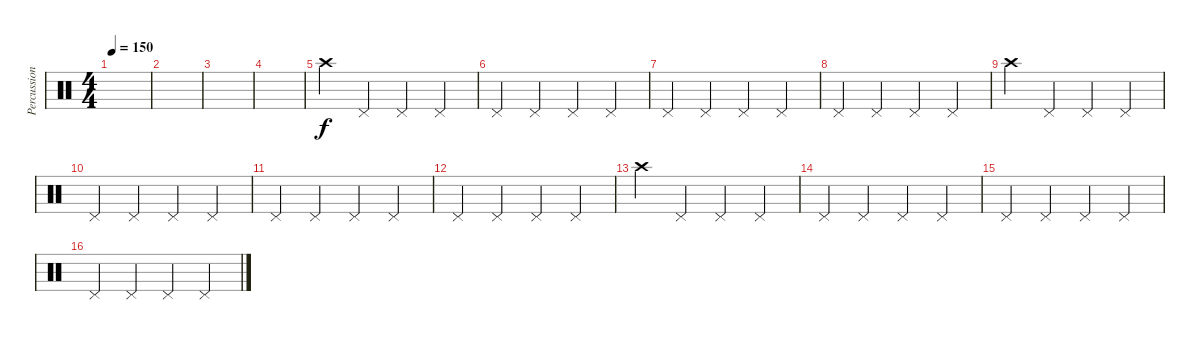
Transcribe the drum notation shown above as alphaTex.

\track ("Percussion" "Percussion") {instrument percussion}
\staff {score}
\articulation defaults
\ts (4 4)
\tempo 150
\clef neutral
\ks c
|
|
|
|
"Crash high (hit)".4 "Pedal Hi-Hat (hit)".4 "Pedal Hi-Hat (hit)".4 "Pedal Hi-Hat (hit)".4 |
"Pedal Hi-Hat (hit)".4 "Pedal Hi-Hat (hit)".4 "Pedal Hi-Hat (hit)".4 "Pedal Hi-Hat (hit)".4 |
"Pedal Hi-Hat (hit)".4 "Pedal Hi-Hat (hit)".4 "Pedal Hi-Hat (hit)".4 "Pedal Hi-Hat (hit)".4 |
"Pedal Hi-Hat (hit)".4 "Pedal Hi-Hat (hit)".4 "Pedal Hi-Hat (hit)".4 "Pedal Hi-Hat (hit)".4 |
"Crash high (hit)".4 "Pedal Hi-Hat (hit)".4 "Pedal Hi-Hat (hit)".4 "Pedal Hi-Hat (hit)".4 |
"Pedal Hi-Hat (hit)".4 "Pedal Hi-Hat (hit)".4 "Pedal Hi-Hat (hit)".4 "Pedal Hi-Hat (hit)".4 |
"Pedal Hi-Hat (hit)".4 "Pedal Hi-Hat (hit)".4 "Pedal Hi-Hat (hit)".4 "Pedal Hi-Hat (hit)".4 |
"Pedal Hi-Hat (hit)".4 "Pedal Hi-Hat (hit)".4 "Pedal Hi-Hat (hit)".4 "Pedal Hi-Hat (hit)".4 |
"Crash high (hit)".4 "Pedal Hi-Hat (hit)".4 "Pedal Hi-Hat (hit)".4 "Pedal Hi-Hat (hit)".4 |
"Pedal Hi-Hat (hit)".4 "Pedal Hi-Hat (hit)".4 "Pedal Hi-Hat (hit)".4 "Pedal Hi-Hat (hit)".4 |
"Pedal Hi-Hat (hit)".4 "Pedal Hi-Hat (hit)".4 "Pedal Hi-Hat (hit)".4 "Pedal Hi-Hat (hit)".4 |
"Pedal Hi-Hat (hit)".4 "Pedal Hi-Hat (hit)".4 "Pedal Hi-Hat (hit)".4 "Pedal Hi-Hat (hit)".4
